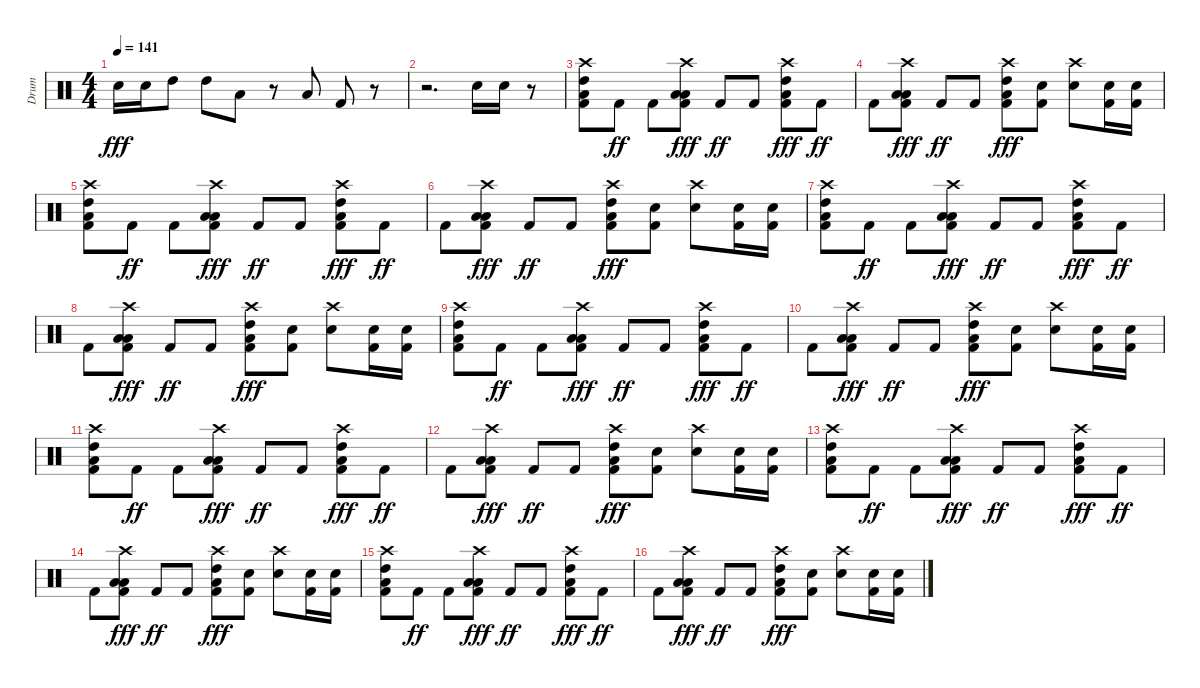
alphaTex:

\track ("Drum" "Drum") {instrument percussion}
\staff {score}
\articulation defaults
\ts (4 4)
\tempo 141
\clef neutral
\ks c "Snare (hit) 2".16{dy fff} "Snare (hit) 2".16 "High Tom (hit)".8 "High Tom (hit)".8 "Low Tom (hit)".8
r.8 "Low Floor Tom (hit)".8 "Kick (hit) 2".8 r.8 |
r.2{d} "Snare (hit) 2".16 "Snare (hit) 2".16 r.8 |
("Kick (hit) 2" "High Tom (hit)" "Low Tom (hit)" "Crash high (hit)").8 "Kick (hit) 2".8{dy ff} "Kick (hit) 2".8 ("Kick (hit) 2" "Low Tom (hit)" "Low Floor Tom (hit)" "Crash high (hit)").8{dy fff} "Kick (hit) 2".8{dy ff} "Kick (hit) 2".8 ("Kick (hit) 2" "High Tom (hit)" "Crash high (hit)" "Low Tom (hit)").8{dy fff} "Kick (hit) 2".8{dy ff} |
"Kick (hit) 2".8 ("Kick (hit) 2" "Low Tom (hit)" "Low Floor Tom (hit)" "Crash high (hit)").8{dy fff} "Kick (hit) 2".8{dy ff} "Kick (hit) 2".8 ("High Tom (hit)" "Kick (hit) 2" "Low Tom (hit)" "Crash high (hit)").8{dy fff} ("Kick (hit) 2" "Snare (hit) 2").8 ("Snare (hit) 2" "Crash high (hit)").8 ("Kick (hit) 2" "Snare (hit) 2").16 ("Kick (hit) 2" "Snare (hit) 2").16 |
("Kick (hit) 2" "High Tom (hit)" "Low Tom (hit)" "Crash high (hit)").8 "Kick (hit) 2".8{dy ff} "Kick (hit) 2".8 ("Kick (hit) 2" "Low Tom (hit)" "Low Floor Tom (hit)" "Crash high (hit)").8{dy fff} "Kick (hit) 2".8{dy ff} "Kick (hit) 2".8 ("Kick (hit) 2" "High Tom (hit)" "Crash high (hit)" "Low Tom (hit)").8{dy fff} "Kick (hit) 2".8{dy ff} |
"Kick (hit) 2".8 ("Kick (hit) 2" "Low Tom (hit)" "Low Floor Tom (hit)" "Crash high (hit)").8{dy fff} "Kick (hit) 2".8{dy ff} "Kick (hit) 2".8 ("High Tom (hit)" "Kick (hit) 2" "Low Tom (hit)" "Crash high (hit)").8{dy fff} ("Kick (hit) 2" "Snare (hit) 2").8 ("Snare (hit) 2" "Crash high (hit)").8 ("Kick (hit) 2" "Snare (hit) 2").16 ("Kick (hit) 2" "Snare (hit) 2").16 |
("Kick (hit) 2" "High Tom (hit)" "Low Tom (hit)" "Crash high (hit)").8 "Kick (hit) 2".8{dy ff} "Kick (hit) 2".8 ("Kick (hit) 2" "Low Tom (hit)" "Low Floor Tom (hit)" "Crash high (hit)").8{dy fff} "Kick (hit) 2".8{dy ff} "Kick (hit) 2".8 ("Kick (hit) 2" "High Tom (hit)" "Crash high (hit)" "Low Tom (hit)").8{dy fff} "Kick (hit) 2".8{dy ff} |
"Kick (hit) 2".8 ("Kick (hit) 2" "Low Tom (hit)" "Low Floor Tom (hit)" "Crash high (hit)").8{dy fff} "Kick (hit) 2".8{dy ff} "Kick (hit) 2".8 ("High Tom (hit)" "Kick (hit) 2" "Low Tom (hit)" "Crash high (hit)").8{dy fff} ("Kick (hit) 2" "Snare (hit) 2").8 ("Snare (hit) 2" "Crash high (hit)").8 ("Kick (hit) 2" "Snare (hit) 2").16 ("Kick (hit) 2" "Snare (hit) 2").16 |
("Kick (hit) 2" "High Tom (hit)" "Low Tom (hit)" "Crash high (hit)").8 "Kick (hit) 2".8{dy ff} "Kick (hit) 2".8 ("Kick (hit) 2" "Low Tom (hit)" "Low Floor Tom (hit)" "Crash high (hit)").8{dy fff} "Kick (hit) 2".8{dy ff} "Kick (hit) 2".8 ("Kick (hit) 2" "High Tom (hit)" "Crash high (hit)" "Low Tom (hit)").8{dy fff} "Kick (hit) 2".8{dy ff} |
"Kick (hit) 2".8 ("Kick (hit) 2" "Low Tom (hit)" "Low Floor Tom (hit)" "Crash high (hit)").8{dy fff} "Kick (hit) 2".8{dy ff} "Kick (hit) 2".8 ("High Tom (hit)" "Kick (hit) 2" "Low Tom (hit)" "Crash high (hit)").8{dy fff} ("Kick (hit) 2" "Snare (hit) 2").8 ("Snare (hit) 2" "Crash high (hit)").8 ("Kick (hit) 2" "Snare (hit) 2").16 ("Kick (hit) 2" "Snare (hit) 2").16 |
("Kick (hit) 2" "High Tom (hit)" "Low Tom (hit)" "Crash high (hit)").8 "Kick (hit) 2".8{dy ff} "Kick (hit) 2".8 ("Kick (hit) 2" "Low Tom (hit)" "Low Floor Tom (hit)" "Crash high (hit)").8{dy fff} "Kick (hit) 2".8{dy ff} "Kick (hit) 2".8 ("Kick (hit) 2" "High Tom (hit)" "Crash high (hit)" "Low Tom (hit)").8{dy fff} "Kick (hit) 2".8{dy ff} |
"Kick (hit) 2".8 ("Kick (hit) 2" "Low Tom (hit)" "Low Floor Tom (hit)" "Crash high (hit)").8{dy fff} "Kick (hit) 2".8{dy ff} "Kick (hit) 2".8 ("High Tom (hit)" "Kick (hit) 2" "Low Tom (hit)" "Crash high (hit)").8{dy fff} ("Kick (hit) 2" "Snare (hit) 2").8 ("Snare (hit) 2" "Crash high (hit)").8 ("Kick (hit) 2" "Snare (hit) 2").16 ("Kick (hit) 2" "Snare (hit) 2").16 |
("Kick (hit) 2" "High Tom (hit)" "Low Tom (hit)" "Crash high (hit)").8 "Kick (hit) 2".8{dy ff} "Kick (hit) 2".8 ("Kick (hit) 2" "Low Tom (hit)" "Low Floor Tom (hit)" "Crash high (hit)").8{dy fff} "Kick (hit) 2".8{dy ff} "Kick (hit) 2".8 ("Kick (hit) 2" "High Tom (hit)" "Crash high (hit)" "Low Tom (hit)").8{dy fff} "Kick (hit) 2".8{dy ff} |
"Kick (hit) 2".8 ("Kick (hit) 2" "Low Tom (hit)" "Low Floor Tom (hit)" "Crash high (hit)").8{dy fff} "Kick (hit) 2".8{dy ff} "Kick (hit) 2".8 ("High Tom (hit)" "Kick (hit) 2" "Low Tom (hit)" "Crash high (hit)").8{dy fff} ("Kick (hit) 2" "Snare (hit) 2").8 ("Snare (hit) 2" "Crash high (hit)").8 ("Kick (hit) 2" "Snare (hit) 2").16 ("Kick (hit) 2" "Snare (hit) 2").16 |
("Kick (hit) 2" "High Tom (hit)" "Low Tom (hit)" "Crash high (hit)").8 "Kick (hit) 2".8{dy ff} "Kick (hit) 2".8 ("Kick (hit) 2" "Low Tom (hit)" "Low Floor Tom (hit)" "Crash high (hit)").8{dy fff} "Kick (hit) 2".8{dy ff} "Kick (hit) 2".8 ("Kick (hit) 2" "High Tom (hit)" "Crash high (hit)" "Low Tom (hit)").8{dy fff} "Kick (hit) 2".8{dy ff} |
"Kick (hit) 2".8 ("Kick (hit) 2" "Low Tom (hit)" "Low Floor Tom (hit)" "Crash high (hit)").8{dy fff} "Kick (hit) 2".8{dy ff} "Kick (hit) 2".8 ("High Tom (hit)" "Kick (hit) 2" "Low Tom (hit)" "Crash high (hit)").8{dy fff} ("Kick (hit) 2" "Snare (hit) 2").8 ("Snare (hit) 2" "Crash high (hit)").8 ("Kick (hit) 2" "Snare (hit) 2").16 ("Kick (hit) 2" "Snare (hit) 2").16
